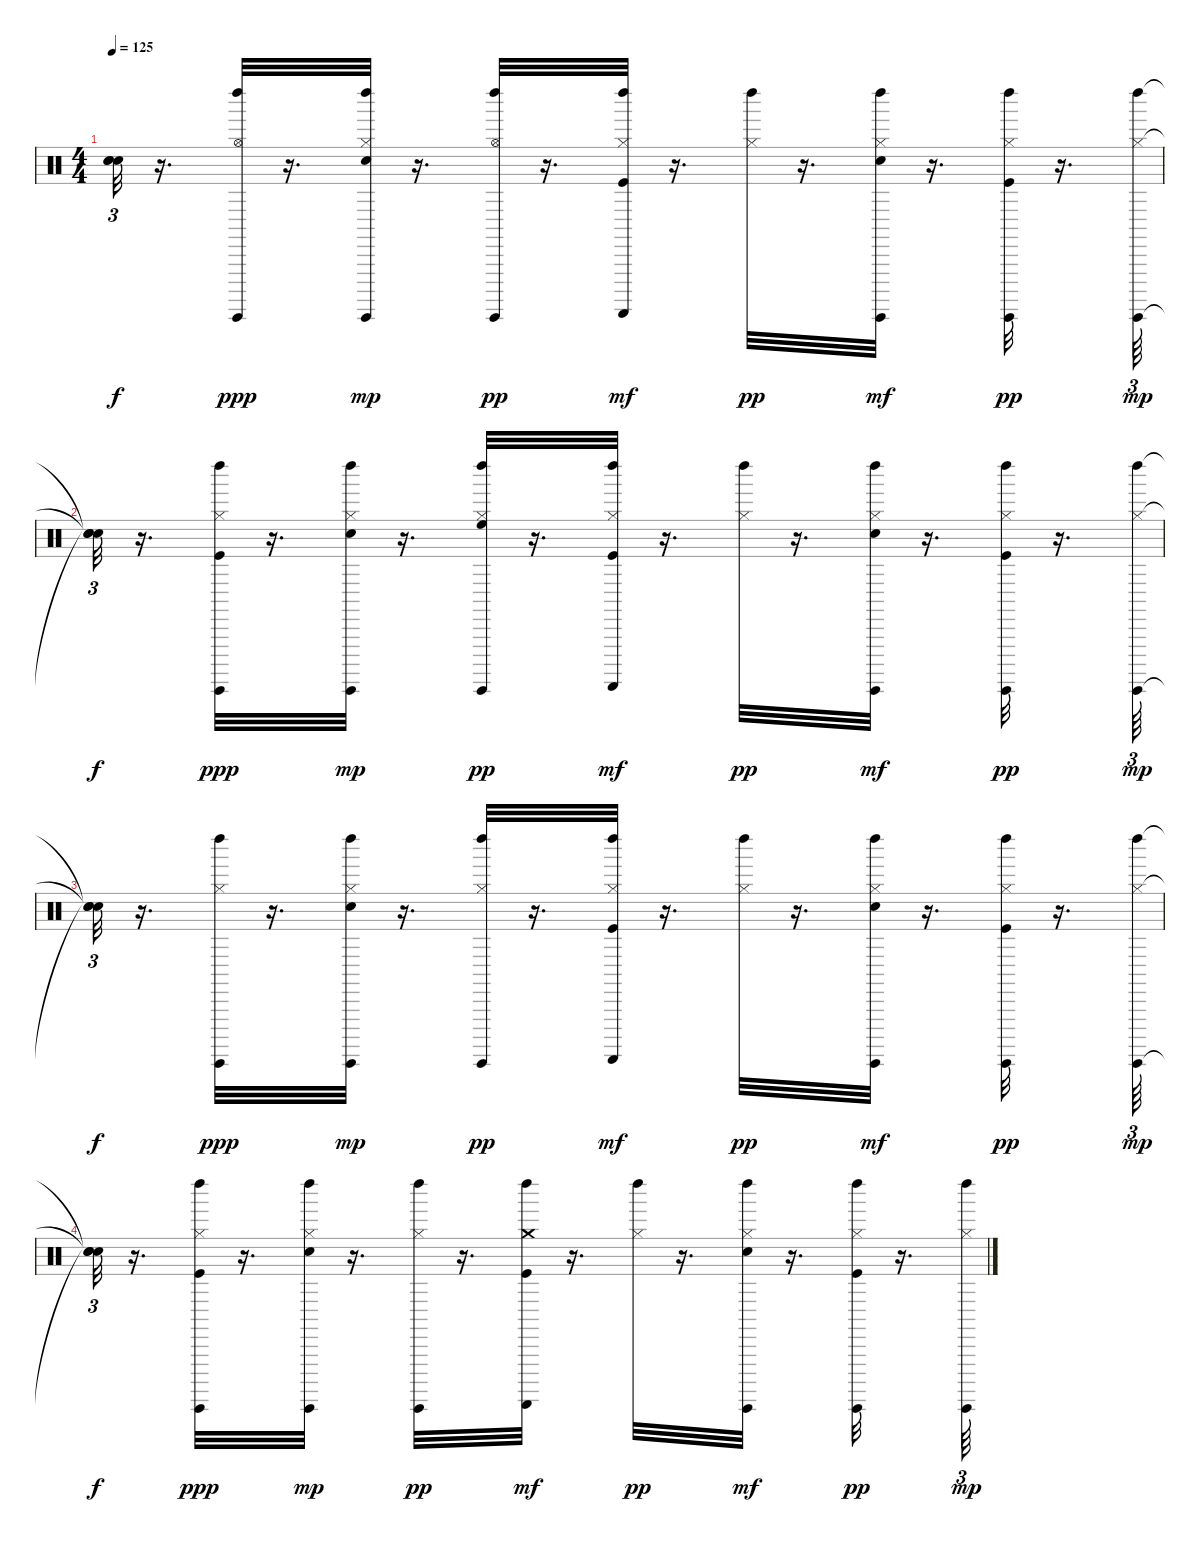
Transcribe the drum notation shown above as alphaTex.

\track "" {instrument percussion}
\staff {score}
\articulation defaults
\ts (4 4)
\tempo 125
\clef neutral
\ks c
("Snare (hit)"{t} "Snare (hit)"{t} "Snare (hit)"{t}).32{tu (3 2) dy f} r.16{d} ("Hi-Hat (open)" "Left Maraca (hit)" "Guiro (hit)").32{dy ppp} r.16{d} ("Left Maraca (hit)" "Hi-Hat (closed)" "Electric Snare (hit)" "Guiro (hit)").32{dy mp} r.16{d} ("Hi-Hat (open)" "Left Maraca (hit)" "Guiro (hit)").32{dy pp} r.16{d} ("Left Maraca (hit)" "Kick (hit)" "Hi-Hat (closed)" "Guiro (scrap-return)").32{dy mf} r.16{d} ("Left Maraca (hit)" "Hi-Hat (closed)").32{dy pp} r.16{d} ("Electric Snare (hit)" "Hi-Hat (closed)" "Left Maraca (hit)" "Guiro (hit)").32{dy mf} r.16{d} ("Left Maraca (hit)" "Kick (hit)" "Hi-Hat (closed)" "Guiro (hit)").32{dy pp} r.16{d} ("Left Maraca (hit)" "Hi-Hat (closed)" "Guiro (hit)").64{tu (3 2) dy mp} |
("Snare (hit)"{t} "Snare (hit)"{t} "Snare (hit)"{t}).32{tu (3 2) dy f} r.16{d} ("Kick (hit)" "Left Maraca (hit)" "Hi-Hat (closed)" "Guiro (hit)").32{dy ppp} r.16{d} ("Electric Snare (hit)" "Hi-Hat (closed)" "Left Maraca (hit)" "Guiro (hit)").32{dy mp} r.16{d} ("Hi-Hat (closed)" "High Floor Tom (hit)" "Left Maraca (hit)" "Guiro (hit)").32{dy pp} r.16{d} ("Left Maraca (hit)" "Kick (hit)" "Hi-Hat (closed)" "Guiro (scrap-return)").32{dy mf} r.16{d} ("Left Maraca (hit)" "Hi-Hat (closed)").32{dy pp} r.16{d} ("Electric Snare (hit)" "Hi-Hat (closed)" "Left Maraca (hit)" "Guiro (hit)").32{dy mf} r.16{d} ("Hi-Hat (closed)" "Left Maraca (hit)" "Kick (hit)" "Guiro (hit)").32{dy pp} r.16{d} ("Hi-Hat (closed)" "Left Maraca (hit)" "Guiro (hit)").64{tu (3 2) dy mp} |
("Snare (hit)"{t} "Snare (hit)"{t} "Snare (hit)"{t}).32{tu (3 2) dy f} r.16{d} ("Left Maraca (hit)" "Hi-Hat (closed)" "Guiro (hit)").32{dy ppp} r.16{d} ("Hi-Hat (closed)" "Left Maraca (hit)" "Electric Snare (hit)" "Guiro (hit)").32{dy mp} r.16{d} ("Hi-Hat (closed)" "Left Maraca (hit)" "Guiro (hit)").32{dy pp} r.16{d} ("Left Maraca (hit)" "Kick (hit)" "Hi-Hat (closed)" "Guiro (scrap-return)").32{dy mf} r.16{d} ("Hi-Hat (closed)" "Left Maraca (hit)").32{dy pp} r.16{d} ("Left Maraca (hit)" "Hi-Hat (closed)" "Electric Snare (hit)" "Guiro (hit)").32{dy mf} r.16{d} ("Kick (hit)" "Hi-Hat (closed)" "Left Maraca (hit)" "Guiro (hit)").32{dy pp} r.16{d} ("Left Maraca (hit)" "Hi-Hat (closed)" "Guiro (hit)").64{tu (3 2) dy mp} |
("Snare (hit)"{t} "Snare (hit)"{t} "Snare (hit)"{t}).32{tu (3 2) dy f} r.16{d} ("Kick (hit)" "Left Maraca (hit)" "Hi-Hat (closed)" "Guiro (hit)").32{dy ppp} r.16{d} ("Left Maraca (hit)" "Electric Snare (hit)" "Hi-Hat (closed)" "Guiro (hit)").32{dy mp} r.16{d} ("Hi-Hat (closed)" "Left Maraca (hit)" "Guiro (hit)").32{dy pp} r.16{d} ("Crash medium (hit)" "Left Maraca (hit)" "Kick (hit)" "Guiro (scrap-return)").32{dy mf} r.16{d} ("Hi-Hat (closed)" "Left Maraca (hit)").32{dy pp} r.16{d} ("Electric Snare (hit)" "Hi-Hat (closed)" "Left Maraca (hit)" "Guiro (hit)").32{dy mf} r.16{d} ("Left Maraca (hit)" "Hi-Hat (closed)" "Kick (hit)" "Guiro (hit)").32{dy pp} r.16{d} ("Left Maraca (hit)" "Hi-Hat (closed)" "Guiro (hit)").64{tu (3 2) dy mp}
